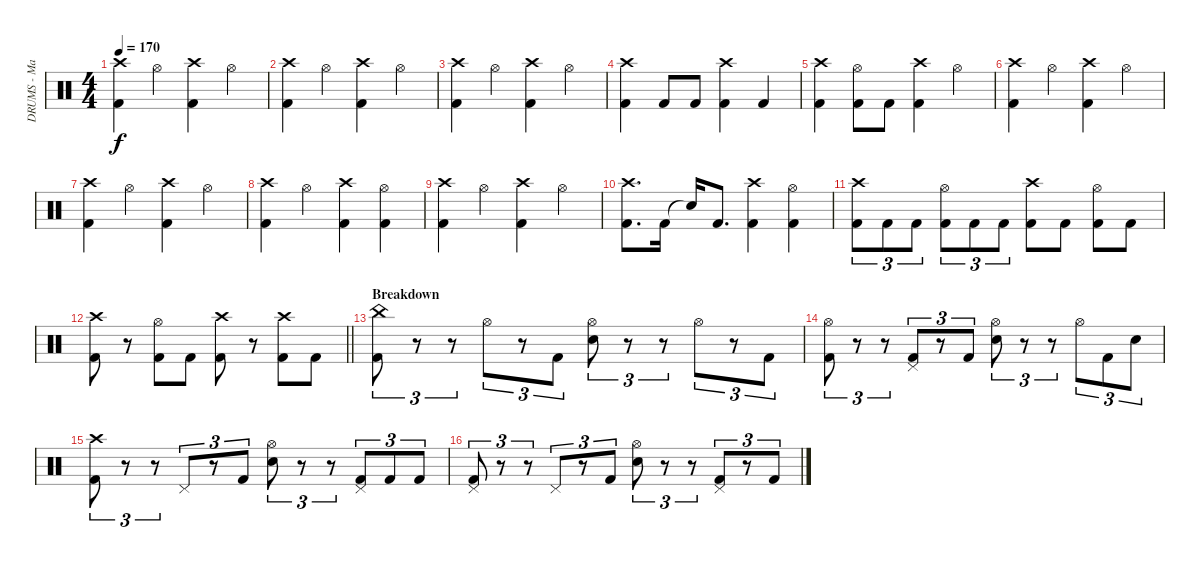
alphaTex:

\track ("DRUMS - Mario Duplantier" "DRUMS - Ma") {instrument percussion}
\staff {score}
\articulation defaults
\ts (4 4)
\tempo 170
\clef neutral
\ks c
("Crash high (hit)" "Kick (hit) 2").4{dy f} "Hi-Hat (open)".4 ("Crash high (hit)" "Kick (hit) 2").4 "Hi-Hat (open)".4 |
("Crash high (hit)" "Kick (hit) 2").4 "Hi-Hat (open)".4 ("Crash high (hit)" "Kick (hit) 2").4 "Hi-Hat (open)".4 |
("Crash high (hit)" "Kick (hit) 2").4 "Hi-Hat (open)".4 ("Crash high (hit)" "Kick (hit) 2").4 "Hi-Hat (open)".4 |
("Crash high (hit)" "Kick (hit) 2").4 "Kick (hit) 2".8 "Kick (hit) 2".8 ("Crash high (hit)" "Kick (hit) 2").4 "Kick (hit) 2".4 |
("Crash high (hit)" "Kick (hit) 2").4 ("Hi-Hat (open)" "Kick (hit) 2").8 "Kick (hit) 2".8 ("Crash high (hit)" "Kick (hit) 2").4 "Hi-Hat (open)".4 |
("Crash high (hit)" "Kick (hit) 2").4 "Hi-Hat (open)".4 ("Crash high (hit)" "Kick (hit) 2").4 "Hi-Hat (open)".4 |
("Crash high (hit)" "Kick (hit) 2").4 "Hi-Hat (open)".4 ("Crash high (hit)" "Kick (hit) 2").4 "Hi-Hat (open)".4 |
("Crash high (hit)" "Kick (hit) 2").4 "Hi-Hat (open)".4 ("Crash high (hit)" "Kick (hit) 2").4 ("Hi-Hat (open)" "Kick (hit) 2").4 |
("Crash high (hit)" "Kick (hit) 2").4 "Hi-Hat (open)".4 ("Crash high (hit)" "Kick (hit) 2").4 "Hi-Hat (open)".4 |
("Crash high (hit)" "Kick (hit) 2").8{d} "Kick (hit) 2".16 "Snare (hit)"{t}.16 "Kick (hit) 2".8{d} ("Crash high (hit)" "Kick (hit) 2").4 ("Hi-Hat (open)" "Kick (hit) 2").4 |
("Crash high (hit)" "Kick (hit) 2").8{tu (3 2)} "Kick (hit) 2".8{tu (3 2)} "Kick (hit) 2".8{tu (3 2)} ("Hi-Hat (open)" "Kick (hit) 2").8{tu (3 2)} "Kick (hit) 2".8{tu (3 2)} "Kick (hit) 2".8{tu (3 2)} ("Crash high (hit)" "Kick (hit) 2").8 "Kick (hit) 2".8 ("Hi-Hat (open)" "Kick (hit) 2").8 "Kick (hit) 2".8 |
\barLineRight lightlight
("Crash high (hit)" "Kick (hit) 2").8 r.8 ("Hi-Hat (open)" "Kick (hit) 2").8 "Kick (hit) 2".8 ("Crash high (hit)" "Kick (hit) 2").8 r.8 ("Crash high (hit)" "Kick (hit) 2").8 "Kick (hit) 2".8 |
\section ("" "Breakdown")
("China (hit)" "Kick (hit) 2").8{tu (3 2)} r.8{tu (3 2)} r.8{tu (3 2)} "Hi-Hat (open)".8{tu (3 2)} r.8{tu (3 2)} "Kick (hit) 2".8{tu (3 2)} ("Hi-Hat (open)" "Electric Snare (hit)").8{tu (3 2)} r.8{tu (3 2)} r.8{tu (3 2)} "Hi-Hat (open)".8{tu (3 2)} r.8{tu (3 2)} "Kick (hit) 2".8{tu (3 2)} |
("Hi-Hat (open)" "Kick (hit) 2").8{tu (3 2)} r.8{tu (3 2)} r.8{tu (3 2)} ("Pedal Hi-Hat (hit)" "Kick (hit) 2").8{tu (3 2)} r.8{tu (3 2)} "Kick (hit) 2".8{tu (3 2)} ("Hi-Hat (open)" "Electric Snare (hit)").8{tu (3 2)} r.8{tu (3 2)} r.8{tu (3 2)} "Hi-Hat (open)".8{tu (3 2)} "Kick (hit) 2".8{tu (3 2)} "Electric Snare (hit)".8{tu (3 2)} |
("Crash high (hit)" "Kick (hit) 2").8{tu (3 2)} r.8{tu (3 2)} r.8{tu (3 2)} "Pedal Hi-Hat (hit)".8{tu (3 2)} r.8{tu (3 2)} "Kick (hit) 2".8{tu (3 2)} ("Hi-Hat (open)" "Electric Snare (hit)").8{tu (3 2)} r.8{tu (3 2)} r.8{tu (3 2)} ("Pedal Hi-Hat (hit)" "Kick (hit) 2").8{tu (3 2)} "Kick (hit) 2".8{tu (3 2)} "Kick (hit) 2".8{tu (3 2)} |
("Pedal Hi-Hat (hit)" "Kick (hit) 2").8{tu (3 2)} r.8{tu (3 2)} r.8{tu (3 2)} "Pedal Hi-Hat (hit)".8{tu (3 2)} r.8{tu (3 2)} "Kick (hit) 2".8{tu (3 2)} ("Hi-Hat (open)" "Electric Snare (hit)").8{tu (3 2)} r.8{tu (3 2)} r.8{tu (3 2)} ("Pedal Hi-Hat (hit)" "Kick (hit) 2").8{tu (3 2)} r.8{tu (3 2)} "Kick (hit) 2".8{tu (3 2)}
